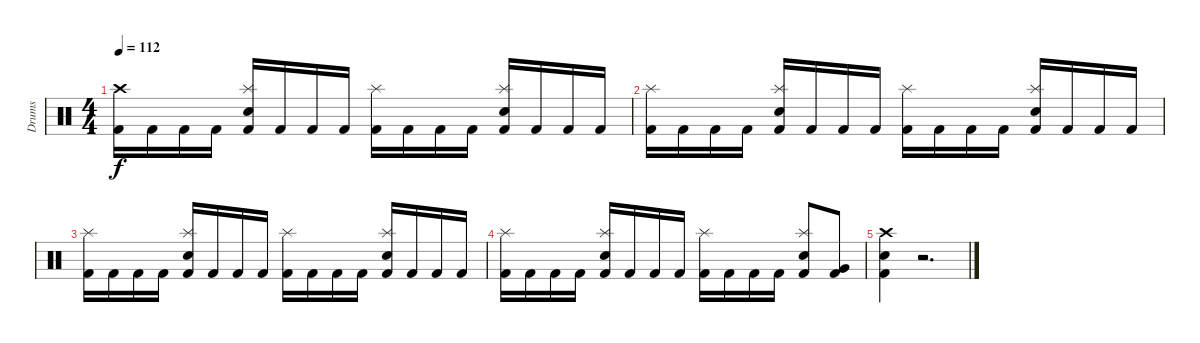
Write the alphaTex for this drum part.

\track ("Drums" "Drums") {instrument percussion}
\staff {score}
\articulation defaults
\ts (4 4)
\tempo 112
\clef neutral
\ks c
("Crash high (hit)" "Kick (hit) 2").16{dy f} "Kick (hit) 2".16 "Kick (hit) 2".16 "Kick (hit) 2".16 ("Splash (hit)" "Electric Snare (hit)" "Kick (hit) 2").16 "Kick (hit) 2".16 "Kick (hit) 2".16 "Kick (hit) 2".16 ("Splash (hit)" "Kick (hit) 2").16 "Kick (hit) 2".16 "Kick (hit) 2".16 "Kick (hit) 2".16 ("Splash (hit)" "Electric Snare (hit)" "Kick (hit) 2").16 "Kick (hit) 2".16 "Kick (hit) 2".16 "Kick (hit) 2".16 |
("Splash (hit)" "Kick (hit) 2").16 "Kick (hit) 2".16 "Kick (hit) 2".16 "Kick (hit) 2".16 ("Splash (hit)" "Electric Snare (hit)" "Kick (hit) 2").16 "Kick (hit) 2".16 "Kick (hit) 2".16 "Kick (hit) 2".16 ("Splash (hit)" "Kick (hit) 2").16 "Kick (hit) 2".16 "Kick (hit) 2".16 "Kick (hit) 2".16 ("Splash (hit)" "Electric Snare (hit)" "Kick (hit) 2").16 "Kick (hit) 2".16 "Kick (hit) 2".16 "Kick (hit) 2".16 |
("Splash (hit)" "Kick (hit) 2").16 "Kick (hit) 2".16 "Kick (hit) 2".16 "Kick (hit) 2".16 ("Splash (hit)" "Electric Snare (hit)" "Kick (hit) 2").16 "Kick (hit) 2".16 "Kick (hit) 2".16 "Kick (hit) 2".16 ("Splash (hit)" "Kick (hit) 2").16 "Kick (hit) 2".16 "Kick (hit) 2".16 "Kick (hit) 2".16 ("Splash (hit)" "Electric Snare (hit)" "Kick (hit) 2").16 "Kick (hit) 2".16 "Kick (hit) 2".16 "Kick (hit) 2".16 |
("Splash (hit)" "Kick (hit) 2").16 "Kick (hit) 2".16 "Kick (hit) 2".16 "Kick (hit) 2".16 ("Splash (hit)" "Electric Snare (hit)" "Kick (hit) 2").16 "Kick (hit) 2".16 "Kick (hit) 2".16 "Kick (hit) 2".16 ("Splash (hit)" "Kick (hit) 2").16 "Kick (hit) 2".16 "Kick (hit) 2".16 "Kick (hit) 2".16 ("Splash (hit)" "Electric Snare (hit)" "Kick (hit) 2").8 ("Very Low Tom (hit)" "Kick (hit) 2").8 |
("Crash high (hit)" "Electric Snare (hit)" "Kick (hit) 2").4 r.2{d}
